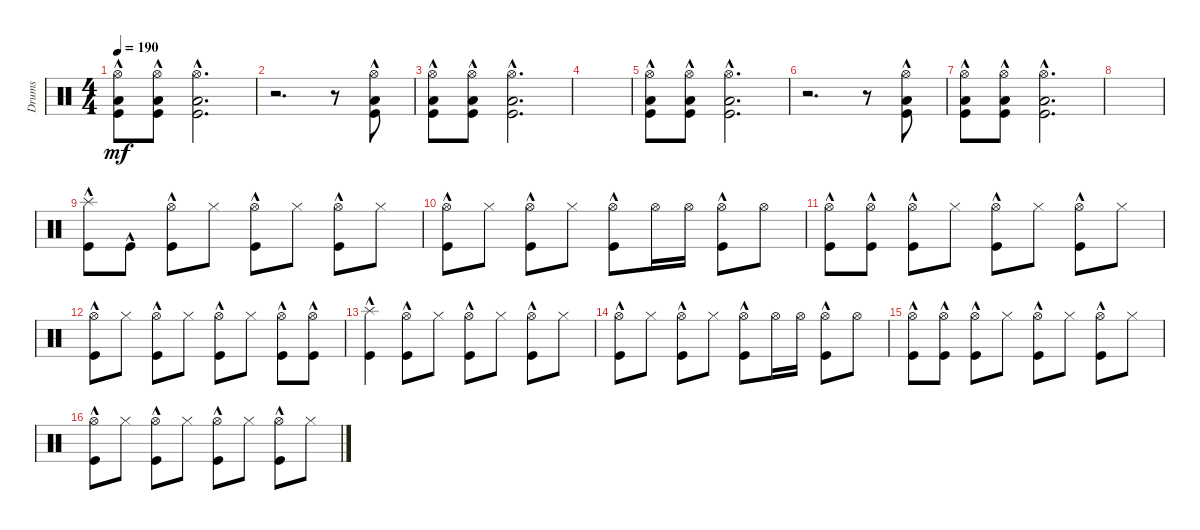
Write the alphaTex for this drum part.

\track ("Drums" "Drums") {instrument percussion}
\staff {score}
\articulation defaults
\ts (4 4)
\tempo 190
\clef neutral
\ks c
("Kick (hit)"{hac} "Low Tom (hit)"{hac} "Hi-Hat (open)").8{dy mf} ("Kick (hit)"{hac} "Low Tom (hit)"{hac} "Hi-Hat (open)").8 ("Kick (hit)"{hac} "Low Tom (hit)"{hac} "Hi-Hat (open)").2{d} |
r.2{d} r.8 ("Kick (hit)"{hac} "Low Tom (hit)"{hac} "Hi-Hat (open)").8 |
("Kick (hit)"{hac} "Low Tom (hit)"{hac} "Hi-Hat (open)").8 ("Kick (hit)"{hac} "Low Tom (hit)"{hac} "Hi-Hat (open)").8 ("Kick (hit)"{hac} "Low Tom (hit)"{hac} "Hi-Hat (open)").2{d} |
|
("Kick (hit)"{hac} "Low Tom (hit)"{hac} "Hi-Hat (open)").8 ("Kick (hit)"{hac} "Low Tom (hit)"{hac} "Hi-Hat (open)").8 ("Kick (hit)"{hac} "Low Tom (hit)"{hac} "Hi-Hat (open)").2{d} |
r.2{d} r.8 ("Kick (hit)"{hac} "Low Tom (hit)"{hac} "Hi-Hat (open)").8 |
("Kick (hit)"{hac} "Low Tom (hit)"{hac} "Hi-Hat (open)").8 ("Kick (hit)"{hac} "Low Tom (hit)"{hac} "Hi-Hat (open)").8 ("Kick (hit)"{hac} "Low Tom (hit)"{hac} "Hi-Hat (open)").2{d} |
|
("Kick (hit)"{hac} "Splash (hit)"{hac}).8 "Kick (hit)"{hac}.8 ("Kick (hit)"{hac} "Hi-Hat (open)").8 "Hi-Hat (closed)".8 ("Hi-Hat (open)" "Kick (hit)"{hac}).8 "Hi-Hat (closed)".8 ("Hi-Hat (open)" "Kick (hit)"{hac}).8 "Hi-Hat (closed)".8 |
("Hi-Hat (open)" "Kick (hit)"{hac}).8 "Hi-Hat (closed)".8 ("Hi-Hat (open)" "Kick (hit)"{hac}).8 "Hi-Hat (closed)".8 ("Hi-Hat (open)" "Kick (hit)"{hac}).8 "Hi-Hat (open)".16 "Hi-Hat (open)".16 ("Hi-Hat (open)" "Kick (hit)"{hac}).8 "Hi-Hat (open)".8 |
("Kick (hit)"{hac} "Hi-Hat (open)").8 ("Kick (hit)"{hac} "Hi-Hat (open)").8 ("Kick (hit)"{hac} "Hi-Hat (open)").8 "Hi-Hat (closed)".8 ("Hi-Hat (open)" "Kick (hit)"{hac}).8 "Hi-Hat (closed)".8 ("Hi-Hat (open)" "Kick (hit)"{hac}).8 "Hi-Hat (closed)".8 |
("Hi-Hat (open)" "Kick (hit)"{hac}).8 "Hi-Hat (closed)".8 ("Hi-Hat (open)" "Kick (hit)"{hac}).8 "Hi-Hat (closed)".8 ("Hi-Hat (open)" "Kick (hit)"{hac}).8 "Hi-Hat (closed)".8 ("Hi-Hat (open)" "Kick (hit)"{hac}).8 ("Hi-Hat (open)" "Kick (hit)"{hac}).8 |
("Splash (hit)"{hac} "Kick (hit)"{hac}).4 ("Hi-Hat (open)" "Kick (hit)"{hac}).8 "Hi-Hat (closed)".8 ("Hi-Hat (open)" "Kick (hit)"{hac}).8 "Hi-Hat (closed)".8 ("Hi-Hat (open)" "Kick (hit)"{hac}).8 "Hi-Hat (closed)".8 |
("Hi-Hat (open)" "Kick (hit)"{hac}).8 "Hi-Hat (closed)".8 ("Hi-Hat (open)" "Kick (hit)"{hac}).8 "Hi-Hat (closed)".8 ("Hi-Hat (open)" "Kick (hit)"{hac}).8 "Hi-Hat (open)".16 "Hi-Hat (open)".16 ("Hi-Hat (open)" "Kick (hit)"{hac}).8 "Hi-Hat (open)".8 |
("Kick (hit)"{hac} "Hi-Hat (open)").8 ("Kick (hit)"{hac} "Hi-Hat (open)").8 ("Kick (hit)"{hac} "Hi-Hat (open)").8 "Hi-Hat (closed)".8 ("Hi-Hat (open)" "Kick (hit)"{hac}).8 "Hi-Hat (closed)".8 ("Hi-Hat (open)" "Kick (hit)"{hac}).8 "Hi-Hat (closed)".8 |
("Hi-Hat (open)" "Kick (hit)"{hac}).8 "Hi-Hat (closed)".8 ("Hi-Hat (open)" "Kick (hit)"{hac}).8 "Hi-Hat (closed)".8 ("Hi-Hat (open)" "Kick (hit)"{hac}).8 "Hi-Hat (closed)".8 ("Hi-Hat (open)" "Kick (hit)"{hac}).8 "Hi-Hat (closed)".8
